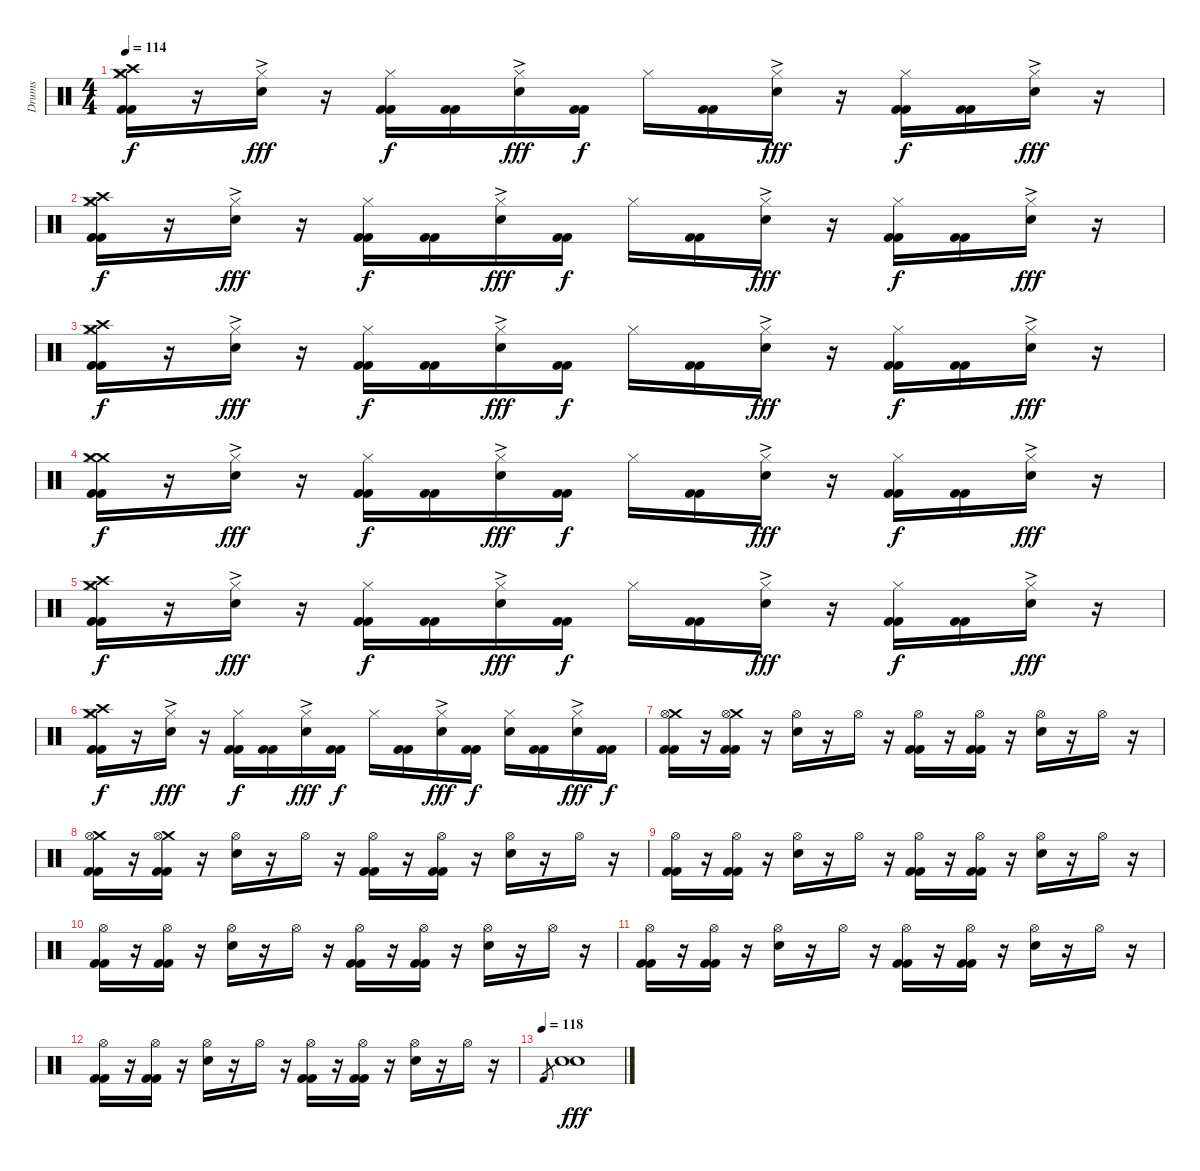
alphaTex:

\track ("Drums" "Drums") {instrument percussion}
\staff {score}
\articulation defaults
\ts (4 4)
\tempo 114
\clef neutral
\ks c
("Crash high (hit)" "Crash medium (hit)" "Hi-Hat (closed)" "Kick (hit) 2" "Kick (hit) 2").16{dy f} r.16 ("Hi-Hat (closed)" "Electric Snare (hit)"{ac}).16{dy fff} r.16 ("Hi-Hat (closed)" "Kick (hit) 2" "Kick (hit) 2").16{dy f} ("Kick (hit) 2" "Kick (hit) 2").16 ("Hi-Hat (closed)" "Electric Snare (hit)"{ac}).16{dy fff} ("Kick (hit) 2" "Kick (hit) 2").16{dy f} "Hi-Hat (closed)".16 ("Kick (hit) 2" "Kick (hit) 2").16 ("Hi-Hat (closed)" "Electric Snare (hit)"{ac}).16{dy fff} r.16 ("Hi-Hat (closed)" "Kick (hit) 2" "Kick (hit) 2").16{dy f} ("Kick (hit) 2" "Kick (hit) 2").16 ("Hi-Hat (closed)" "Electric Snare (hit)"{ac}).16{dy fff} r.16 |
("Crash high (hit)" "Crash medium (hit)" "Hi-Hat (closed)" "Kick (hit) 2" "Kick (hit) 2").16{dy f} r.16 ("Hi-Hat (closed)" "Electric Snare (hit)"{ac}).16{dy fff} r.16 ("Hi-Hat (closed)" "Kick (hit) 2" "Kick (hit) 2").16{dy f} ("Kick (hit) 2" "Kick (hit) 2").16 ("Hi-Hat (closed)" "Electric Snare (hit)"{ac}).16{dy fff} ("Kick (hit) 2" "Kick (hit) 2").16{dy f} "Hi-Hat (closed)".16 ("Kick (hit) 2" "Kick (hit) 2").16 ("Hi-Hat (closed)" "Electric Snare (hit)"{ac}).16{dy fff} r.16 ("Hi-Hat (closed)" "Kick (hit) 2" "Kick (hit) 2").16{dy f} ("Kick (hit) 2" "Kick (hit) 2").16 ("Hi-Hat (closed)" "Electric Snare (hit)"{ac}).16{dy fff} r.16 |
("Crash high (hit)" "Crash medium (hit)" "Hi-Hat (closed)" "Kick (hit) 2" "Kick (hit) 2").16{dy f} r.16 ("Hi-Hat (closed)" "Electric Snare (hit)"{ac}).16{dy fff} r.16 ("Hi-Hat (closed)" "Kick (hit) 2" "Kick (hit) 2").16{dy f} ("Kick (hit) 2" "Kick (hit) 2").16 ("Hi-Hat (closed)" "Electric Snare (hit)"{ac}).16{dy fff} ("Kick (hit) 2" "Kick (hit) 2").16{dy f} "Hi-Hat (closed)".16 ("Kick (hit) 2" "Kick (hit) 2").16 ("Hi-Hat (closed)" "Electric Snare (hit)"{ac}).16{dy fff} r.16 ("Hi-Hat (closed)" "Kick (hit) 2" "Kick (hit) 2").16{dy f} ("Kick (hit) 2" "Kick (hit) 2").16 ("Hi-Hat (closed)" "Electric Snare (hit)"{ac}).16{dy fff} r.16 |
("Crash medium (hit)" "Crash medium (hit)" "Hi-Hat (closed)" "Kick (hit) 2" "Kick (hit) 2").16{dy f} r.16 ("Hi-Hat (closed)" "Electric Snare (hit)"{ac}).16{dy fff} r.16 ("Hi-Hat (closed)" "Kick (hit) 2" "Kick (hit) 2").16{dy f} ("Kick (hit) 2" "Kick (hit) 2").16 ("Hi-Hat (closed)" "Electric Snare (hit)"{ac}).16{dy fff} ("Kick (hit) 2" "Kick (hit) 2").16{dy f} "Hi-Hat (closed)".16 ("Kick (hit) 2" "Kick (hit) 2").16 ("Hi-Hat (closed)" "Electric Snare (hit)"{ac}).16{dy fff} r.16 ("Hi-Hat (closed)" "Kick (hit) 2" "Kick (hit) 2").16{dy f} ("Kick (hit) 2" "Kick (hit) 2").16 ("Hi-Hat (closed)" "Electric Snare (hit)"{ac}).16{dy fff} r.16 |
("Crash high (hit)" "Crash medium (hit)" "Hi-Hat (closed)" "Kick (hit) 2" "Kick (hit) 2").16{dy f} r.16 ("Hi-Hat (closed)" "Electric Snare (hit)"{ac}).16{dy fff} r.16 ("Hi-Hat (closed)" "Kick (hit) 2" "Kick (hit) 2").16{dy f} ("Kick (hit) 2" "Kick (hit) 2").16 ("Hi-Hat (closed)" "Electric Snare (hit)"{ac}).16{dy fff} ("Kick (hit) 2" "Kick (hit) 2").16{dy f} "Hi-Hat (closed)".16 ("Kick (hit) 2" "Kick (hit) 2").16 ("Hi-Hat (closed)" "Electric Snare (hit)"{ac}).16{dy fff} r.16 ("Hi-Hat (closed)" "Kick (hit) 2" "Kick (hit) 2").16{dy f} ("Kick (hit) 2" "Kick (hit) 2").16 ("Hi-Hat (closed)" "Electric Snare (hit)"{ac}).16{dy fff} r.16 |
("Crash high (hit)" "Crash medium (hit)" "Hi-Hat (closed)" "Kick (hit) 2" "Kick (hit) 2").16{dy f} r.16 ("Hi-Hat (closed)" "Electric Snare (hit)"{ac}).16{dy fff} r.16 ("Hi-Hat (closed)" "Kick (hit) 2" "Kick (hit) 2").16{dy f} ("Kick (hit) 2" "Kick (hit) 2").16 ("Hi-Hat (closed)" "Electric Snare (hit)"{ac}).16{dy fff} ("Kick (hit) 2" "Kick (hit) 2").16{dy f} "Hi-Hat (closed)".16 ("Kick (hit) 2" "Kick (hit) 2").16 ("Hi-Hat (closed)" "Electric Snare (hit)"{ac}).16{dy fff} ("Kick (hit) 2" "Kick (hit) 2").16{dy f} ("Hi-Hat (closed)" "Electric Snare (hit)").16 ("Kick (hit) 2" "Kick (hit) 2").16 ("Hi-Hat (closed)" "Electric Snare (hit)"{ac}).16{dy fff} ("Kick (hit) 2" "Kick (hit) 2").16{dy f} |
("Crash medium (hit)" "Hi-Hat (open)" "Kick (hit) 2" "Kick (hit) 2").16 r.16 ("Crash medium (hit)" "Hi-Hat (open)" "Kick (hit) 2" "Kick (hit) 2").16 r.16 ("Hi-Hat (open)" "Electric Snare (hit)").16 r.16 "Hi-Hat (open)".16 r.16 ("Hi-Hat (open)" "Kick (hit) 2" "Kick (hit) 2").16 r.16 ("Hi-Hat (open)" "Kick (hit) 2" "Kick (hit) 2").16 r.16 ("Hi-Hat (open)" "Electric Snare (hit)").16 r.16 "Hi-Hat (open)".16 r.16 |
("Crash medium (hit)" "Hi-Hat (open)" "Kick (hit) 2" "Kick (hit) 2").16 r.16 ("Crash medium (hit)" "Hi-Hat (open)" "Kick (hit) 2" "Kick (hit) 2").16 r.16 ("Hi-Hat (open)" "Electric Snare (hit)").16 r.16 "Hi-Hat (open)".16 r.16 ("Hi-Hat (open)" "Kick (hit) 2" "Kick (hit) 2").16 r.16 ("Hi-Hat (open)" "Kick (hit) 2" "Kick (hit) 2").16 r.16 ("Hi-Hat (open)" "Electric Snare (hit)").16 r.16 "Hi-Hat (open)".16 r.16 |
("Hi-Hat (open)" "Kick (hit) 2" "Kick (hit) 2").16 r.16 ("Hi-Hat (open)" "Kick (hit) 2" "Kick (hit) 2").16 r.16 ("Hi-Hat (open)" "Electric Snare (hit)").16 r.16 "Hi-Hat (open)".16 r.16 ("Hi-Hat (open)" "Kick (hit) 2" "Kick (hit) 2").16 r.16 ("Hi-Hat (open)" "Kick (hit) 2" "Kick (hit) 2").16 r.16 ("Hi-Hat (open)" "Electric Snare (hit)").16 r.16 "Hi-Hat (open)".16 r.16 |
("Hi-Hat (open)" "Kick (hit) 2" "Kick (hit) 2").16 r.16 ("Hi-Hat (open)" "Kick (hit) 2" "Kick (hit) 2").16 r.16 ("Hi-Hat (open)" "Electric Snare (hit)").16 r.16 "Hi-Hat (open)".16 r.16 ("Hi-Hat (open)" "Kick (hit) 2" "Kick (hit) 2").16 r.16 ("Hi-Hat (open)" "Kick (hit) 2" "Kick (hit) 2").16 r.16 ("Hi-Hat (open)" "Electric Snare (hit)").16 r.16 "Hi-Hat (open)".16 r.16 |
("Hi-Hat (open)" "Kick (hit) 2" "Kick (hit) 2").16 r.16 ("Hi-Hat (open)" "Kick (hit) 2" "Kick (hit) 2").16 r.16 ("Hi-Hat (open)" "Electric Snare (hit)").16 r.16 "Hi-Hat (open)".16 r.16 ("Hi-Hat (open)" "Kick (hit) 2" "Kick (hit) 2").16 r.16 ("Hi-Hat (open)" "Kick (hit) 2" "Kick (hit) 2").16 r.16 ("Hi-Hat (open)" "Electric Snare (hit)").16 r.16 "Hi-Hat (open)".16 r.16 |
("Hi-Hat (open)" "Kick (hit) 2" "Kick (hit) 2").16 r.16 ("Hi-Hat (open)" "Kick (hit) 2" "Kick (hit) 2").16 r.16 ("Hi-Hat (open)" "Electric Snare (hit)").16 r.16 "Hi-Hat (open)".16 r.16 ("Hi-Hat (open)" "Kick (hit) 2" "Kick (hit) 2").16 r.16 ("Hi-Hat (open)" "Kick (hit) 2" "Kick (hit) 2").16 r.16 ("Hi-Hat (open)" "Electric Snare (hit)").16 r.16 "Hi-Hat (open)".16 r.16 |
\tempo (118)
"Kick (hit) 2".8{gr} ("Electric Snare (hit)" "Electric Snare (hit)").1{dy fff}
